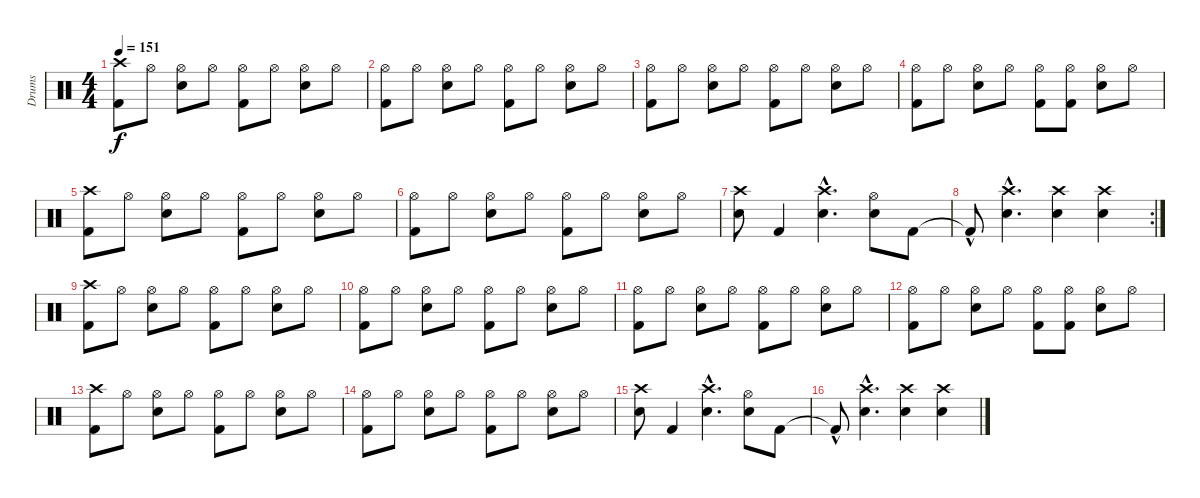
\track ("Drums" "Drums") {instrument percussion}
\staff {score}
\articulation defaults
\ts (4 4)
\tempo 151
\clef neutral
\ks c
("Crash high (hit)" "Kick (hit) 2").8{dy f} "Hi-Hat (open)".8 ("Hi-Hat (open)" "Electric Snare (hit)").8 "Hi-Hat (open)".8 ("Hi-Hat (open)" "Kick (hit) 2").8 "Hi-Hat (open)".8 ("Hi-Hat (open)" "Electric Snare (hit)").8 "Hi-Hat (open)".8 |
("Hi-Hat (open)" "Kick (hit) 2").8 "Hi-Hat (open)".8 ("Hi-Hat (open)" "Electric Snare (hit)").8 "Hi-Hat (open)".8 ("Hi-Hat (open)" "Kick (hit) 2").8 "Hi-Hat (open)".8 ("Hi-Hat (open)" "Electric Snare (hit)").8 "Hi-Hat (open)".8 |
("Hi-Hat (open)" "Kick (hit) 2").8 "Hi-Hat (open)".8 ("Hi-Hat (open)" "Electric Snare (hit)").8 "Hi-Hat (open)".8 ("Hi-Hat (open)" "Kick (hit) 2").8 "Hi-Hat (open)".8 ("Hi-Hat (open)" "Electric Snare (hit)").8 "Hi-Hat (open)".8 |
("Hi-Hat (open)" "Kick (hit) 2").8 "Hi-Hat (open)".8 ("Hi-Hat (open)" "Electric Snare (hit)").8 "Hi-Hat (open)".8 ("Hi-Hat (open)" "Kick (hit) 2").8 ("Hi-Hat (open)" "Kick (hit) 2").8 ("Hi-Hat (open)" "Electric Snare (hit)").8 "Hi-Hat (open)".8 |
("Crash high (hit)" "Kick (hit) 2").8 "Hi-Hat (open)".8 ("Hi-Hat (open)" "Electric Snare (hit)").8 "Hi-Hat (open)".8 ("Hi-Hat (open)" "Kick (hit) 2").8 "Hi-Hat (open)".8 ("Hi-Hat (open)" "Electric Snare (hit)").8 "Hi-Hat (open)".8 |
("Hi-Hat (open)" "Kick (hit) 2").8 "Hi-Hat (open)".8 ("Hi-Hat (open)" "Electric Snare (hit)").8 "Hi-Hat (open)".8 ("Hi-Hat (open)" "Kick (hit) 2").8 "Hi-Hat (open)".8 ("Hi-Hat (open)" "Electric Snare (hit)").8 "Hi-Hat (open)".8 |
("Crash high (hit)" "Electric Snare (hit)").8 "Kick (hit) 2".4 ("Crash high (hit)"{hac} "Electric Snare (hit)"{hac}).4{d} ("Hi-Hat (open)" "Electric Snare (hit)").8 "Kick (hit) 2".8 |
\rc 2 "Kick (hit) 2"{hac t}.8
("Crash high (hit)"{hac} "Electric Snare (hit)"{hac}).4{d} ("Crash high (hit)" "Electric Snare (hit)").4 ("Crash high (hit)" "Electric Snare (hit)").4 |
("Crash high (hit)" "Kick (hit) 2").8 "Hi-Hat (open)".8 ("Hi-Hat (open)" "Electric Snare (hit)").8 "Hi-Hat (open)".8 ("Hi-Hat (open)" "Kick (hit) 2").8 "Hi-Hat (open)".8 ("Hi-Hat (open)" "Electric Snare (hit)").8 "Hi-Hat (open)".8 |
("Hi-Hat (open)" "Kick (hit) 2").8 "Hi-Hat (open)".8 ("Hi-Hat (open)" "Electric Snare (hit)").8 "Hi-Hat (open)".8 ("Hi-Hat (open)" "Kick (hit) 2").8 "Hi-Hat (open)".8 ("Hi-Hat (open)" "Electric Snare (hit)").8 "Hi-Hat (open)".8 |
("Hi-Hat (open)" "Kick (hit) 2").8 "Hi-Hat (open)".8 ("Hi-Hat (open)" "Electric Snare (hit)").8 "Hi-Hat (open)".8 ("Hi-Hat (open)" "Kick (hit) 2").8 "Hi-Hat (open)".8 ("Hi-Hat (open)" "Electric Snare (hit)").8 "Hi-Hat (open)".8 |
("Hi-Hat (open)" "Kick (hit) 2").8 "Hi-Hat (open)".8 ("Hi-Hat (open)" "Electric Snare (hit)").8 "Hi-Hat (open)".8 ("Hi-Hat (open)" "Kick (hit) 2").8 ("Hi-Hat (open)" "Kick (hit) 2").8 ("Hi-Hat (open)" "Electric Snare (hit)").8 "Hi-Hat (open)".8 |
("Crash high (hit)" "Kick (hit) 2").8 "Hi-Hat (open)".8 ("Hi-Hat (open)" "Electric Snare (hit)").8 "Hi-Hat (open)".8 ("Hi-Hat (open)" "Kick (hit) 2").8 "Hi-Hat (open)".8 ("Hi-Hat (open)" "Electric Snare (hit)").8 "Hi-Hat (open)".8 |
("Hi-Hat (open)" "Kick (hit) 2").8 "Hi-Hat (open)".8 ("Hi-Hat (open)" "Electric Snare (hit)").8 "Hi-Hat (open)".8 ("Hi-Hat (open)" "Kick (hit) 2").8 "Hi-Hat (open)".8 ("Hi-Hat (open)" "Electric Snare (hit)").8 "Hi-Hat (open)".8 |
("Crash high (hit)" "Electric Snare (hit)").8 "Kick (hit) 2".4 ("Crash high (hit)"{hac} "Electric Snare (hit)"{hac}).4{d} ("Hi-Hat (open)" "Electric Snare (hit)").8 "Kick (hit) 2".8 |
"Kick (hit) 2"{hac t}.8 ("Crash high (hit)"{hac} "Electric Snare (hit)"{hac}).4{d} ("Crash high (hit)" "Electric Snare (hit)").4 ("Crash high (hit)" "Electric Snare (hit)").4
